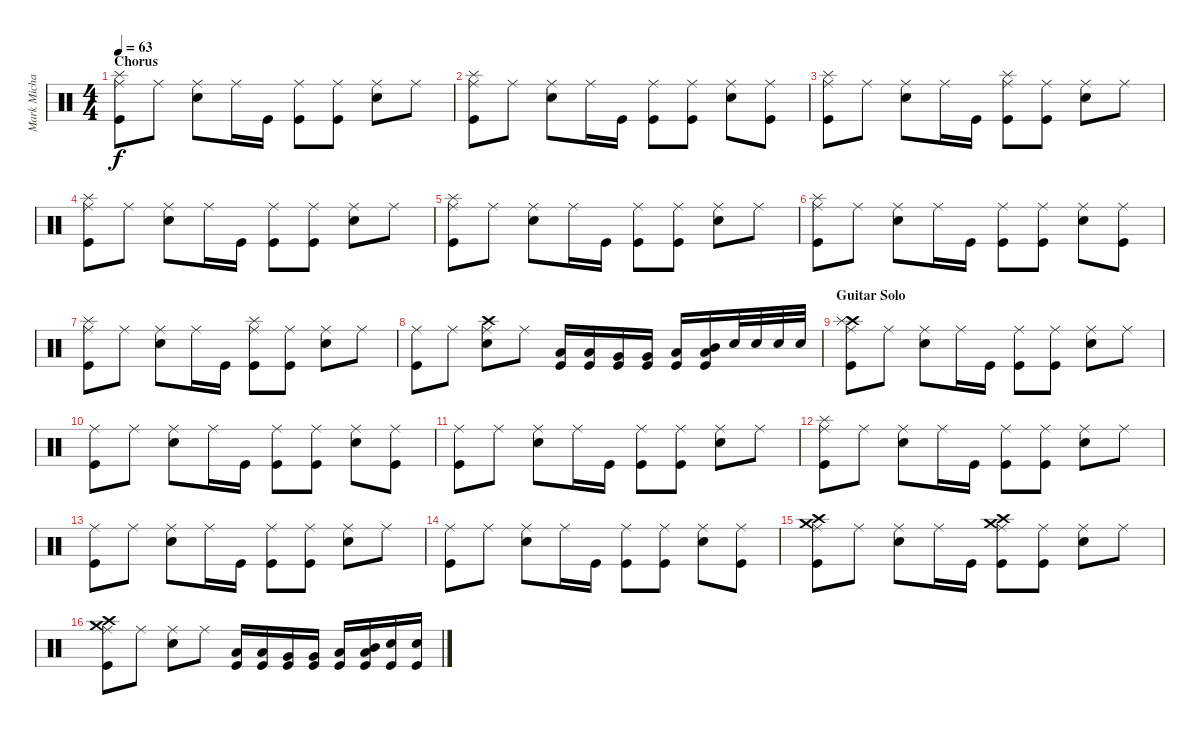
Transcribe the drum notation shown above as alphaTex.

\track ("Mark Michals - Drums" "Mark Micha") {instrument percussion}
\staff {score}
\articulation defaults
\ts (4 4)
\section ("" "Chorus")
\tempo 63
\clef neutral
\ks c
("Ride (middle)" "Splash (hit)" "Kick (hit)").8{dy f} "Ride (middle)".8 ("Ride (middle)" "Snare (hit) 2").8 "Ride (middle)".16 "Kick (hit)".16 ("Ride (middle)" "Kick (hit)").8 ("Ride (middle)" "Kick (hit)").8 ("Ride (middle)" "Snare (hit) 2").8 "Ride (middle)".8 |
("Ride (middle)" "Splash (hit)" "Kick (hit)").8 "Ride (middle)".8 ("Ride (middle)" "Snare (hit) 2").8 "Ride (middle)".16 "Kick (hit)".16 ("Ride (middle)" "Kick (hit)").8 ("Ride (middle)" "Kick (hit)").8 ("Ride (middle)" "Snare (hit) 2").8 ("Ride (middle)" "Kick (hit)").8 |
("Ride (middle)" "Splash (hit)" "Kick (hit)").8 "Ride (middle)".8 ("Ride (middle)" "Snare (hit) 2").8 "Ride (middle)".16 "Kick (hit)".16 ("Ride (middle)" "Splash (hit)" "Kick (hit)").8 ("Ride (middle)" "Kick (hit)").8 ("Ride (middle)" "Snare (hit) 2").8 "Ride (middle)".8 |
("Ride (middle)" "Splash (hit)" "Kick (hit)").8 "Ride (middle)".8 ("Ride (middle)" "Snare (hit) 2").8 "Ride (middle)".16 "Kick (hit)".16 ("Ride (middle)" "Kick (hit)").8 ("Ride (middle)" "Kick (hit)").8 ("Ride (middle)" "Snare (hit) 2").8 "Ride (middle)".8 |
("Ride (middle)" "Splash (hit)" "Kick (hit)").8 "Ride (middle)".8 ("Ride (middle)" "Snare (hit) 2").8 "Ride (middle)".16 "Kick (hit)".16 ("Ride (middle)" "Kick (hit)").8 ("Ride (middle)" "Kick (hit)").8 ("Ride (middle)" "Snare (hit) 2").8 "Ride (middle)".8 |
("Ride (middle)" "Splash (hit)" "Kick (hit)").8 "Ride (middle)".8 ("Ride (middle)" "Snare (hit) 2").8 "Ride (middle)".16 "Kick (hit)".16 ("Ride (middle)" "Kick (hit)").8 ("Ride (middle)" "Kick (hit)").8 ("Ride (middle)" "Snare (hit) 2").8 ("Ride (middle)" "Kick (hit)").8 |
("Ride (middle)" "Splash (hit)" "Kick (hit)").8 "Ride (middle)".8 ("Ride (middle)" "Snare (hit) 2").8 "Ride (middle)".16 "Kick (hit)".16 ("Ride (middle)" "Splash (hit)" "Kick (hit)").8 ("Ride (middle)" "Kick (hit)").8 ("Ride (middle)" "Snare (hit) 2").8 "Ride (middle)".8 |
("Ride (middle)" "Kick (hit)").8 "Ride (middle)".8 ("Ride (middle)" "Crash high (hit)" "Snare (hit) 2").8 "Ride (middle)".8 ("Low Floor Tom (hit)" "Kick (hit)").16 ("Low Floor Tom (hit)" "Kick (hit)").16 ("Very Low Tom (hit)" "Kick (hit)").16 ("Very Low Tom (hit)" "Kick (hit)").16 ("Low Tom (hit)" "Kick (hit)").16 ("Mid Tom (hit)" "Low Tom (hit)" "Kick (hit)").16 "Snare (hit) 2".32 "Snare (hit) 2".32 "Snare (hit) 2".32 "Snare (hit) 2".32 |
\section ("" "Guitar Solo")
("Ride (middle)" "Crash high (hit)" "Splash (hit)" "Kick (hit)").8 "Ride (middle)".8 ("Ride (middle)" "Snare (hit) 2").8 "Ride (middle)".16 "Kick (hit)".16 ("Ride (middle)" "Kick (hit)").8 ("Ride (middle)" "Kick (hit)").8 ("Ride (middle)" "Snare (hit) 2").8 "Ride (middle)".8 |
("Ride (middle)" "Kick (hit)").8 "Ride (middle)".8 ("Ride (middle)" "Snare (hit) 2").8 "Ride (middle)".16 "Kick (hit)".16 ("Ride (middle)" "Kick (hit)").8 ("Ride (middle)" "Kick (hit)").8 ("Ride (middle)" "Snare (hit) 2").8 ("Ride (middle)" "Kick (hit)").8 |
("Ride (middle)" "Kick (hit)").8 "Ride (middle)".8 ("Ride (middle)" "Snare (hit) 2").8 "Ride (middle)".16 "Kick (hit)".16 ("Ride (middle)" "Kick (hit)").8 ("Ride (middle)" "Kick (hit)").8 ("Ride (middle)" "Snare (hit) 2").8 "Ride (middle)".8 |
("Ride (middle)" "Splash (hit)" "Kick (hit)").8 "Ride (middle)".8 ("Ride (middle)" "Snare (hit) 2").8 "Ride (middle)".16 "Kick (hit)".16 ("Ride (middle)" "Kick (hit)").8 ("Ride (middle)" "Kick (hit)").8 ("Ride (middle)" "Snare (hit) 2").8 "Ride (middle)".8 |
("Ride (middle)" "Kick (hit)").8 "Ride (middle)".8 ("Ride (middle)" "Snare (hit) 2").8 "Ride (middle)".16 "Kick (hit)".16 ("Ride (middle)" "Kick (hit)").8 ("Ride (middle)" "Kick (hit)").8 ("Ride (middle)" "Snare (hit) 2").8 "Ride (middle)".8 |
("Ride (middle)" "Kick (hit)").8 "Ride (middle)".8 ("Ride (middle)" "Snare (hit) 2").8 "Ride (middle)".16 "Kick (hit)".16 ("Ride (middle)" "Kick (hit)").8 ("Ride (middle)" "Kick (hit)").8 ("Ride (middle)" "Snare (hit) 2").8 ("Ride (middle)" "Kick (hit)").8 |
("Ride (middle)" "Crash medium (hit)" "Crash high (hit)" "Kick (hit)").8 "Ride (middle)".8 ("Ride (middle)" "Snare (hit) 2").8 "Ride (middle)".16 "Kick (hit)".16 ("Ride (middle)" "Crash medium (hit)" "Crash high (hit)" "Kick (hit)").8 ("Ride (middle)" "Kick (hit)").8 ("Ride (middle)" "Snare (hit) 2").8 "Ride (middle)".8 |
("Ride (middle)" "Crash medium (hit)" "Crash high (hit)" "Kick (hit)").8 "Ride (middle)".8 ("Ride (middle)" "Snare (hit) 2").8 "Ride (middle)".8 ("Low Floor Tom (hit)" "Kick (hit)").16 ("Low Floor Tom (hit)" "Kick (hit)").16 ("Very Low Tom (hit)" "Kick (hit)").16 ("Very Low Tom (hit)" "Kick (hit)").16 ("Low Tom (hit)" "Kick (hit)").16 ("Mid Tom (hit)" "Low Tom (hit)" "Kick (hit)").16 ("Snare (hit) 2" "Kick (hit)").16 ("Snare (hit) 2" "Kick (hit)").16
